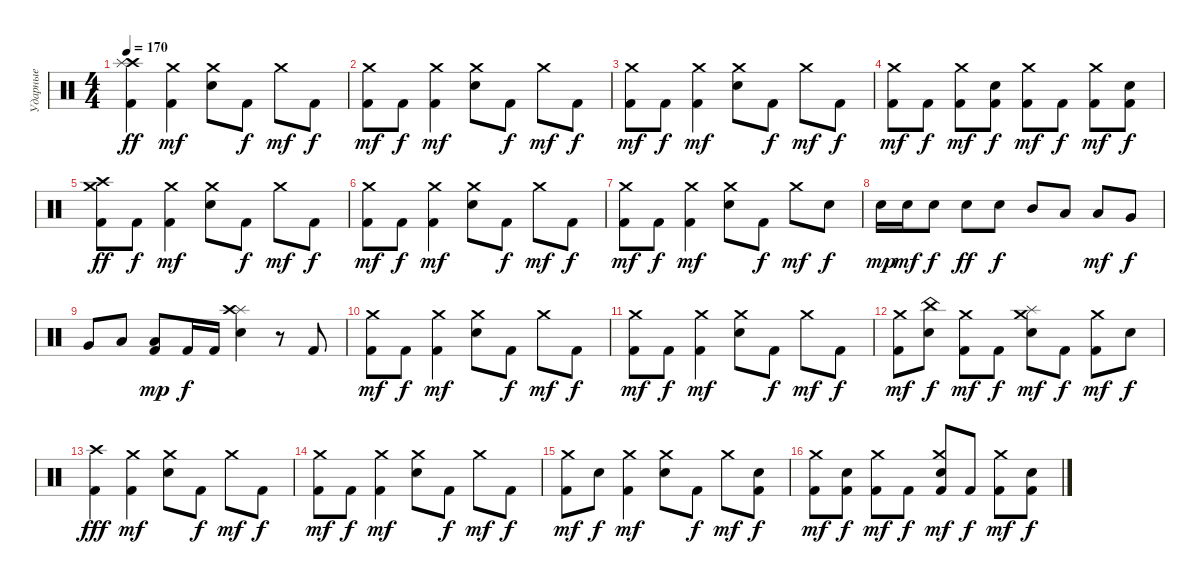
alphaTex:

\track ("Ударные" "Ударные") {instrument percussion}
\staff {score}
\articulation defaults
\ts (4 4)
\tempo 170
\clef neutral
\ks c
("Crash high (hit)" "Splash (hit)" "Kick (hit) 2").4{dy ff} ("Crash medium (hit)" "Kick (hit) 2").4{dy mf} ("Crash medium (hit)" "Electric Snare (hit)").8 "Kick (hit) 2".8{dy f} "Crash medium (hit)".8{dy mf} "Kick (hit) 2".8{dy f} |
("Crash medium (hit)" "Kick (hit) 2").8{dy mf} "Kick (hit) 2".8{dy f} ("Crash medium (hit)" "Kick (hit) 2").4{dy mf} ("Crash medium (hit)" "Electric Snare (hit)").8 "Kick (hit) 2".8{dy f} "Crash medium (hit)".8{dy mf} "Kick (hit) 2".8{dy f} |
("Crash medium (hit)" "Kick (hit) 2").8{dy mf} "Kick (hit) 2".8{dy f} ("Crash medium (hit)" "Kick (hit) 2").4{dy mf} ("Crash medium (hit)" "Electric Snare (hit)").8 "Kick (hit) 2".8{dy f} "Crash medium (hit)".8{dy mf} "Kick (hit) 2".8{dy f} |
("Crash medium (hit)" "Kick (hit) 2").8{dy mf} "Kick (hit) 2".8{dy f} ("Crash medium (hit)" "Kick (hit) 2").8{dy mf} ("Electric Snare (hit)" "Kick (hit) 2").8{dy f} ("Crash medium (hit)" "Kick (hit) 2").8{dy mf} "Kick (hit) 2".8{dy f} ("Crash medium (hit)" "Kick (hit) 2").8{dy mf} ("Electric Snare (hit)" "Kick (hit) 2").8{dy f} |
("Crash medium (hit)" "Crash high (hit)" "Kick (hit) 2").8{dy ff} "Kick (hit) 2".8{dy f} ("Crash medium (hit)" "Kick (hit) 2").4{dy mf} ("Crash medium (hit)" "Electric Snare (hit)").8 "Kick (hit) 2".8{dy f} "Crash medium (hit)".8{dy mf} "Kick (hit) 2".8{dy f} |
("Crash medium (hit)" "Kick (hit) 2").8{dy mf} "Kick (hit) 2".8{dy f} ("Crash medium (hit)" "Kick (hit) 2").4{dy mf} ("Crash medium (hit)" "Electric Snare (hit)").8 "Kick (hit) 2".8{dy f} "Crash medium (hit)".8{dy mf} "Kick (hit) 2".8{dy f} |
("Crash medium (hit)" "Kick (hit) 2").8{dy mf} "Kick (hit) 2".8{dy f} ("Crash medium (hit)" "Kick (hit) 2").4{dy mf} ("Crash medium (hit)" "Electric Snare (hit)").8 "Kick (hit) 2".8{dy f} "Crash medium (hit)".8{dy mf} "Electric Snare (hit)".8{dy f} |
"Electric Snare (hit)".16{dy mp} "Electric Snare (hit)".16{dy mf} "Electric Snare (hit)".8{dy f} "Electric Snare (hit)".8{dy ff} "Electric Snare (hit)".8{dy f} "Mid Tom (hit)".8 "Low Tom (hit)".8 "Low Tom (hit)".8{dy mf} "Very Low Tom (hit)".8{dy f} |
"Very Low Tom (hit)".8 "Low Floor Tom (hit)".8 ("Low Floor Tom (hit)" "Kick (hit) 2").8{dy mp} "Kick (hit) 2".16{dy f} "Kick (hit) 2".16 ("Splash (hit)" "Crash high (hit)" "Electric Snare (hit)").4 r.8 "Kick (hit) 2".8 |
("Crash medium (hit)" "Kick (hit) 2").8{dy mf} "Kick (hit) 2".8{dy f} ("Crash medium (hit)" "Kick (hit) 2").4{dy mf} ("Crash medium (hit)" "Electric Snare (hit)").8 "Kick (hit) 2".8{dy f} "Crash medium (hit)".8{dy mf} "Kick (hit) 2".8{dy f} |
("Crash medium (hit)" "Kick (hit) 2").8{dy mf} "Kick (hit) 2".8{dy f} ("Crash medium (hit)" "Kick (hit) 2").4{dy mf} ("Crash medium (hit)" "Electric Snare (hit)").8 "Kick (hit) 2".8{dy f} "Crash medium (hit)".8{dy mf} "Kick (hit) 2".8{dy f} |
("Crash medium (hit)" "Kick (hit) 2").8{dy mf} ("China (hit)" "Electric Snare (hit)").8{dy f} ("Crash medium (hit)" "Kick (hit) 2").8{dy mf} "Kick (hit) 2".8{dy f} ("Crash medium (hit)" "Splash (hit)" "Electric Snare (hit)").8{dy mf} "Kick (hit) 2".8{dy f} ("Crash medium (hit)" "Kick (hit) 2").8{dy mf} "Electric Snare (hit)".8{dy f} |
("Crash high (hit)" "Kick (hit) 2").4{dy fff} ("Crash medium (hit)" "Kick (hit) 2").4{dy mf} ("Crash medium (hit)" "Electric Snare (hit)").8 "Kick (hit) 2".8{dy f} "Crash medium (hit)".8{dy mf} "Kick (hit) 2".8{dy f} |
("Crash medium (hit)" "Kick (hit) 2").8{dy mf} "Kick (hit) 2".8{dy f} ("Crash medium (hit)" "Kick (hit) 2").4{dy mf} ("Crash medium (hit)" "Electric Snare (hit)").8 "Kick (hit) 2".8{dy f} "Crash medium (hit)".8{dy mf} "Kick (hit) 2".8{dy f} |
("Crash medium (hit)" "Kick (hit) 2").8{dy mf} "Electric Snare (hit)".8{dy f} ("Crash medium (hit)" "Kick (hit) 2").4{dy mf} ("Crash medium (hit)" "Electric Snare (hit)").8 "Kick (hit) 2".8{dy f} "Crash medium (hit)".8{dy mf} ("Electric Snare (hit)" "Kick (hit) 2").8{dy f} |
("Crash medium (hit)" "Kick (hit) 2").8{dy mf} ("Electric Snare (hit)" "Kick (hit) 2").8{dy f} ("Crash medium (hit)" "Kick (hit) 2").8{dy mf} "Kick (hit) 2".8{dy f} ("Crash medium (hit)" "Electric Snare (hit)" "Kick (hit) 2").8{dy mf} "Kick (hit) 2".8{dy f} ("Crash medium (hit)" "Kick (hit) 2").8{dy mf} ("Electric Snare (hit)" "Kick (hit) 2").8{dy f}
